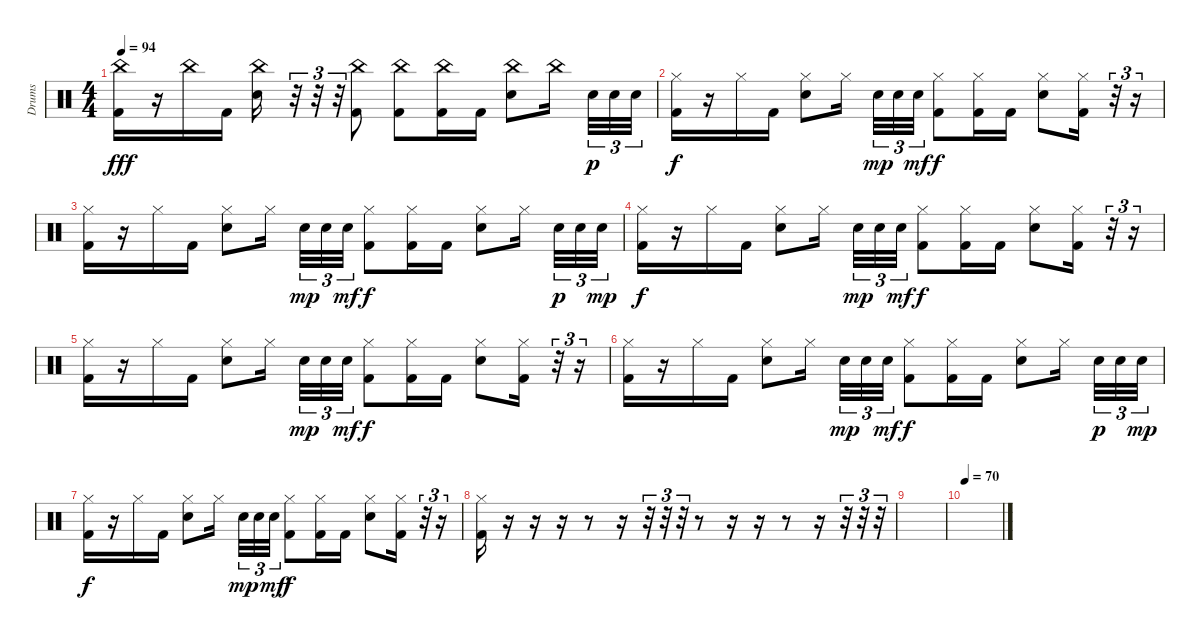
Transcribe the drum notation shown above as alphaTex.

\track ("Drums" "Drums") {instrument percussion}
\staff {score}
\articulation defaults
\ts (4 4)
\tempo 94
\clef neutral
\ks c
("China (hit)" "Kick (hit) 2").16{dy fff} r.16 "China (hit)".16 "Kick (hit) 2".16 ("China (hit)" "Electric Snare (hit)").16 r.32{tu (3 2)} r.32{tu (3 2)} r.32{tu (3 2)} ("China (hit)" "Kick (hit) 2").8 ("China (hit)" "Kick (hit) 2").8 ("China (hit)" "Kick (hit) 2").16 "Kick (hit) 2".16 ("China (hit)" "Electric Snare (hit)").8 "China (hit)".16 "Electric Snare (hit)".32{tu (3 2) dy p} "Electric Snare (hit)".32{tu (3 2)} "Electric Snare (hit)".32{tu (3 2)} |
("Hi-Hat (closed)" "Kick (hit) 2").16{dy f} r.16 "Hi-Hat (closed)".16 "Kick (hit) 2".16 ("Hi-Hat (closed)" "Electric Snare (hit)").8 "Hi-Hat (closed)".16 "Electric Snare (hit)".32{tu (3 2) dy mp} "Electric Snare (hit)".32{tu (3 2)} "Electric Snare (hit)".32{tu (3 2) dy mf} ("Hi-Hat (closed)" "Kick (hit) 2").8{dy f} ("Hi-Hat (closed)" "Kick (hit) 2").16 "Kick (hit) 2".16 ("Hi-Hat (closed)" "Electric Snare (hit)").8 ("Hi-Hat (closed)" "Kick (hit) 2").16 r.32{tu (3 2)} r.16{tu (3 2)} |
("Hi-Hat (closed)" "Kick (hit) 2").16 r.16 "Hi-Hat (closed)".16 "Kick (hit) 2".16 ("Hi-Hat (closed)" "Electric Snare (hit)").8 "Hi-Hat (closed)".16 "Electric Snare (hit)".32{tu (3 2) dy mp} "Electric Snare (hit)".32{tu (3 2)} "Electric Snare (hit)".32{tu (3 2) dy mf} ("Hi-Hat (closed)" "Kick (hit) 2").8{dy f} ("Hi-Hat (closed)" "Kick (hit) 2").16 "Kick (hit) 2".16 ("Hi-Hat (closed)" "Electric Snare (hit)").8 "Hi-Hat (closed)".16 "Electric Snare (hit)".32{tu (3 2) dy p} "Electric Snare (hit)".32{tu (3 2)} "Electric Snare (hit)".32{tu (3 2) dy mp} |
("Hi-Hat (closed)" "Kick (hit) 2").16{dy f} r.16 "Hi-Hat (closed)".16 "Kick (hit) 2".16 ("Hi-Hat (closed)" "Electric Snare (hit)").8 "Hi-Hat (closed)".16 "Electric Snare (hit)".32{tu (3 2) dy mp} "Electric Snare (hit)".32{tu (3 2)} "Electric Snare (hit)".32{tu (3 2) dy mf} ("Hi-Hat (closed)" "Kick (hit) 2").8{dy f} ("Hi-Hat (closed)" "Kick (hit) 2").16 "Kick (hit) 2".16 ("Hi-Hat (closed)" "Electric Snare (hit)").8 ("Hi-Hat (closed)" "Kick (hit) 2").16 r.32{tu (3 2)} r.16{tu (3 2)} |
("Hi-Hat (closed)" "Kick (hit) 2").16 r.16 "Hi-Hat (closed)".16 "Kick (hit) 2".16 ("Hi-Hat (closed)" "Electric Snare (hit)").8 "Hi-Hat (closed)".16 "Electric Snare (hit)".32{tu (3 2) dy mp} "Electric Snare (hit)".32{tu (3 2)} "Electric Snare (hit)".32{tu (3 2) dy mf} ("Hi-Hat (closed)" "Kick (hit) 2").8{dy f} ("Hi-Hat (closed)" "Kick (hit) 2").16 "Kick (hit) 2".16 ("Hi-Hat (closed)" "Electric Snare (hit)").8 ("Hi-Hat (closed)" "Kick (hit) 2").16 r.32{tu (3 2)} r.16{tu (3 2)} |
("Hi-Hat (closed)" "Kick (hit) 2").16 r.16 "Hi-Hat (closed)".16 "Kick (hit) 2".16 ("Hi-Hat (closed)" "Electric Snare (hit)").8 "Hi-Hat (closed)".16 "Electric Snare (hit)".32{tu (3 2) dy mp} "Electric Snare (hit)".32{tu (3 2)} "Electric Snare (hit)".32{tu (3 2) dy mf} ("Hi-Hat (closed)" "Kick (hit) 2").8{dy f} ("Hi-Hat (closed)" "Kick (hit) 2").16 "Kick (hit) 2".16 ("Hi-Hat (closed)" "Electric Snare (hit)").8 "Hi-Hat (closed)".16 "Electric Snare (hit)".32{tu (3 2) dy p} "Electric Snare (hit)".32{tu (3 2)} "Electric Snare (hit)".32{tu (3 2) dy mp} |
("Hi-Hat (closed)" "Kick (hit) 2").16{dy f} r.16 "Hi-Hat (closed)".16 "Kick (hit) 2".16 ("Hi-Hat (closed)" "Electric Snare (hit)").8 "Hi-Hat (closed)".16 "Electric Snare (hit)".32{tu (3 2) dy mp} "Electric Snare (hit)".32{tu (3 2)} "Electric Snare (hit)".32{tu (3 2) dy mf} ("Hi-Hat (closed)" "Kick (hit) 2").8{dy f} ("Hi-Hat (closed)" "Kick (hit) 2").16 "Kick (hit) 2".16 ("Hi-Hat (closed)" "Electric Snare (hit)").8 ("Hi-Hat (closed)" "Kick (hit) 2").16 r.32{tu (3 2)} r.16{tu (3 2)} |
("Hi-Hat (closed)" "Kick (hit) 2").16 r.16 r.16 r.16 r.8 r.16 r.32{tu (3 2)} r.32{tu (3 2)} r.32{tu (3 2)} r.8 r.16 r.16 r.8 r.16 r.32{tu (3 2)} r.32{tu (3 2)} r.32{tu (3 2)} |
|
\tempo 70
